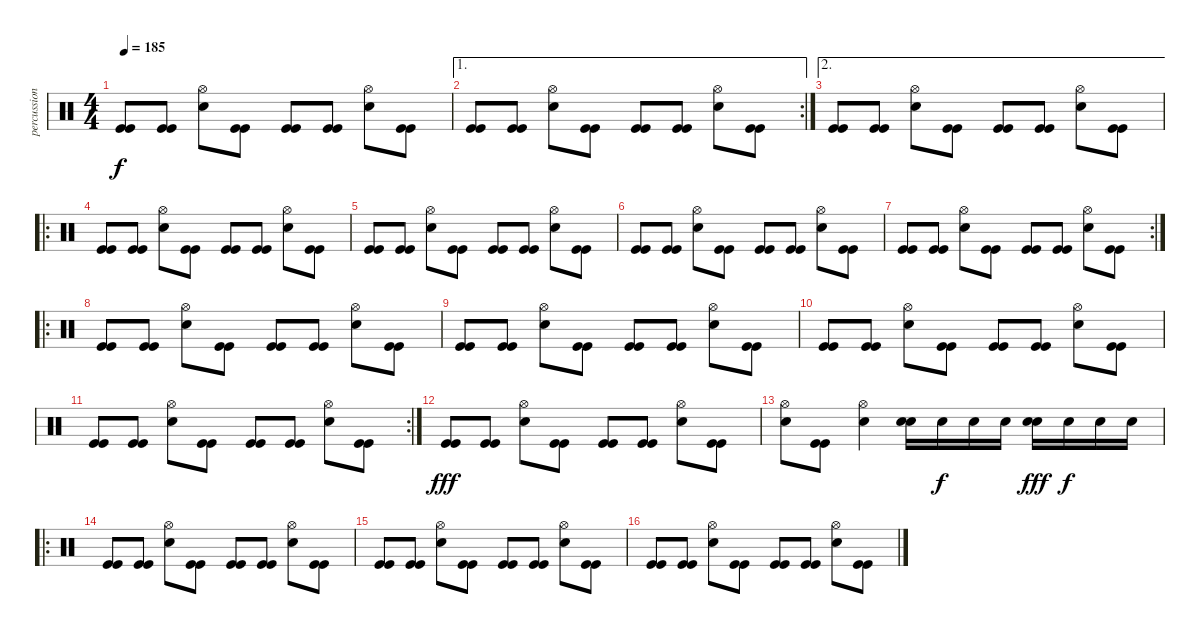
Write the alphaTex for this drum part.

\track ("percussions" "percussion") {instrument percussion}
\staff {score}
\articulation defaults
\ts (4 4)
\tempo 185
\clef neutral
\ks c
("Kick (hit)" "Kick (hit)").8{dy f} ("Kick (hit)" "Kick (hit)").8 ("Snare (hit) 2" "Hi-Hat (open)").8 ("Kick (hit)" "Kick (hit)").8 ("Kick (hit)" "Kick (hit)").8 ("Kick (hit)" "Kick (hit)").8 ("Snare (hit) 2" "Hi-Hat (open)").8 ("Kick (hit)" "Kick (hit)").8 |
\ae 1
\rc 2
("Kick (hit)" "Kick (hit)").8 ("Kick (hit)" "Kick (hit)").8 ("Snare (hit) 2" "Hi-Hat (open)").8 ("Kick (hit)" "Kick (hit)").8 ("Kick (hit)" "Kick (hit)").8 ("Kick (hit)" "Kick (hit)").8 ("Snare (hit) 2" "Hi-Hat (open)").8 ("Kick (hit)" "Kick (hit)").8 |
\ae 2
("Kick (hit)" "Kick (hit)").8 ("Kick (hit)" "Kick (hit)").8 ("Snare (hit) 2" "Hi-Hat (open)").8 ("Kick (hit)" "Kick (hit)").8 ("Kick (hit)" "Kick (hit)").8 ("Kick (hit)" "Kick (hit)").8 ("Snare (hit) 2" "Hi-Hat (open)").8 ("Kick (hit)" "Kick (hit)").8 |
\ro
("Kick (hit)" "Kick (hit)").8 ("Kick (hit)" "Kick (hit)").8 ("Snare (hit) 2" "Hi-Hat (open)").8 ("Kick (hit)" "Kick (hit)").8 ("Kick (hit)" "Kick (hit)").8 ("Kick (hit)" "Kick (hit)").8 ("Snare (hit) 2" "Hi-Hat (open)").8 ("Kick (hit)" "Kick (hit)").8 |
("Kick (hit)" "Kick (hit)").8 ("Kick (hit)" "Kick (hit)").8 ("Snare (hit) 2" "Hi-Hat (open)").8 ("Kick (hit)" "Kick (hit)").8 ("Kick (hit)" "Kick (hit)").8 ("Kick (hit)" "Kick (hit)").8 ("Snare (hit) 2" "Hi-Hat (open)").8 ("Kick (hit)" "Kick (hit)").8 |
("Kick (hit)" "Kick (hit)").8 ("Kick (hit)" "Kick (hit)").8 ("Snare (hit) 2" "Hi-Hat (open)").8 ("Kick (hit)" "Kick (hit)").8 ("Kick (hit)" "Kick (hit)").8 ("Kick (hit)" "Kick (hit)").8 ("Snare (hit) 2" "Hi-Hat (open)").8 ("Kick (hit)" "Kick (hit)").8 |
\rc 2
("Kick (hit)" "Kick (hit)").8 ("Kick (hit)" "Kick (hit)").8 ("Snare (hit) 2" "Hi-Hat (open)").8 ("Kick (hit)" "Kick (hit)").8 ("Kick (hit)" "Kick (hit)").8 ("Kick (hit)" "Kick (hit)").8 ("Snare (hit) 2" "Hi-Hat (open)").8 ("Kick (hit)" "Kick (hit)").8 |
\ro
("Kick (hit)" "Kick (hit)").8 ("Kick (hit)" "Kick (hit)").8 ("Snare (hit) 2" "Hi-Hat (open)").8 ("Kick (hit)" "Kick (hit)").8 ("Kick (hit)" "Kick (hit)").8 ("Kick (hit)" "Kick (hit)").8 ("Snare (hit) 2" "Hi-Hat (open)").8 ("Kick (hit)" "Kick (hit)").8 |
("Kick (hit)" "Kick (hit)").8 ("Kick (hit)" "Kick (hit)").8 ("Snare (hit) 2" "Hi-Hat (open)").8 ("Kick (hit)" "Kick (hit)").8 ("Kick (hit)" "Kick (hit)").8 ("Kick (hit)" "Kick (hit)").8 ("Snare (hit) 2" "Hi-Hat (open)").8 ("Kick (hit)" "Kick (hit)").8 |
("Kick (hit)" "Kick (hit)").8 ("Kick (hit)" "Kick (hit)").8 ("Snare (hit) 2" "Hi-Hat (open)").8 ("Kick (hit)" "Kick (hit)").8 ("Kick (hit)" "Kick (hit)").8 ("Kick (hit)" "Kick (hit)").8 ("Snare (hit) 2" "Hi-Hat (open)").8 ("Kick (hit)" "Kick (hit)").8 |
\rc 2
("Kick (hit)" "Kick (hit)").8 ("Kick (hit)" "Kick (hit)").8 ("Snare (hit) 2" "Hi-Hat (open)").8 ("Kick (hit)" "Kick (hit)").8 ("Kick (hit)" "Kick (hit)").8 ("Kick (hit)" "Kick (hit)").8 ("Snare (hit) 2" "Hi-Hat (open)").8 ("Kick (hit)" "Kick (hit)").8 |
("Kick (hit)" "Kick (hit)").8{dy fff} ("Kick (hit)" "Kick (hit)").8 ("Snare (hit) 2" "Hi-Hat (open)").8 ("Kick (hit)" "Kick (hit)").8 ("Kick (hit)" "Kick (hit)").8 ("Kick (hit)" "Kick (hit)").8 ("Snare (hit) 2" "Hi-Hat (open)").8 ("Kick (hit)" "Kick (hit)").8 |
("Snare (hit) 2" "Hi-Hat (open)").8 ("Kick (hit)" "Kick (hit)").8 ("Snare (hit) 2" "Hi-Hat (open)").4 ("Snare (hit) 2" "Snare (hit) 2").16 "Snare (hit) 2".16{dy f} "Snare (hit) 2".16 "Snare (hit) 2".16 ("Snare (hit) 2" "Snare (hit) 2").16{dy fff} "Snare (hit) 2".16{dy f} "Snare (hit) 2".16 "Snare (hit) 2".16 |
\ro
("Kick (hit)" "Kick (hit)").8 ("Kick (hit)" "Kick (hit)").8 ("Snare (hit) 2" "Hi-Hat (open)").8 ("Kick (hit)" "Kick (hit)").8 ("Kick (hit)" "Kick (hit)").8 ("Kick (hit)" "Kick (hit)").8 ("Snare (hit) 2" "Hi-Hat (open)").8 ("Kick (hit)" "Kick (hit)").8 |
("Kick (hit)" "Kick (hit)").8 ("Kick (hit)" "Kick (hit)").8 ("Snare (hit) 2" "Hi-Hat (open)").8 ("Kick (hit)" "Kick (hit)").8 ("Kick (hit)" "Kick (hit)").8 ("Kick (hit)" "Kick (hit)").8 ("Snare (hit) 2" "Hi-Hat (open)").8 ("Kick (hit)" "Kick (hit)").8 |
("Kick (hit)" "Kick (hit)").8 ("Kick (hit)" "Kick (hit)").8 ("Snare (hit) 2" "Hi-Hat (open)").8 ("Kick (hit)" "Kick (hit)").8 ("Kick (hit)" "Kick (hit)").8 ("Kick (hit)" "Kick (hit)").8 ("Snare (hit) 2" "Hi-Hat (open)").8 ("Kick (hit)" "Kick (hit)").8
